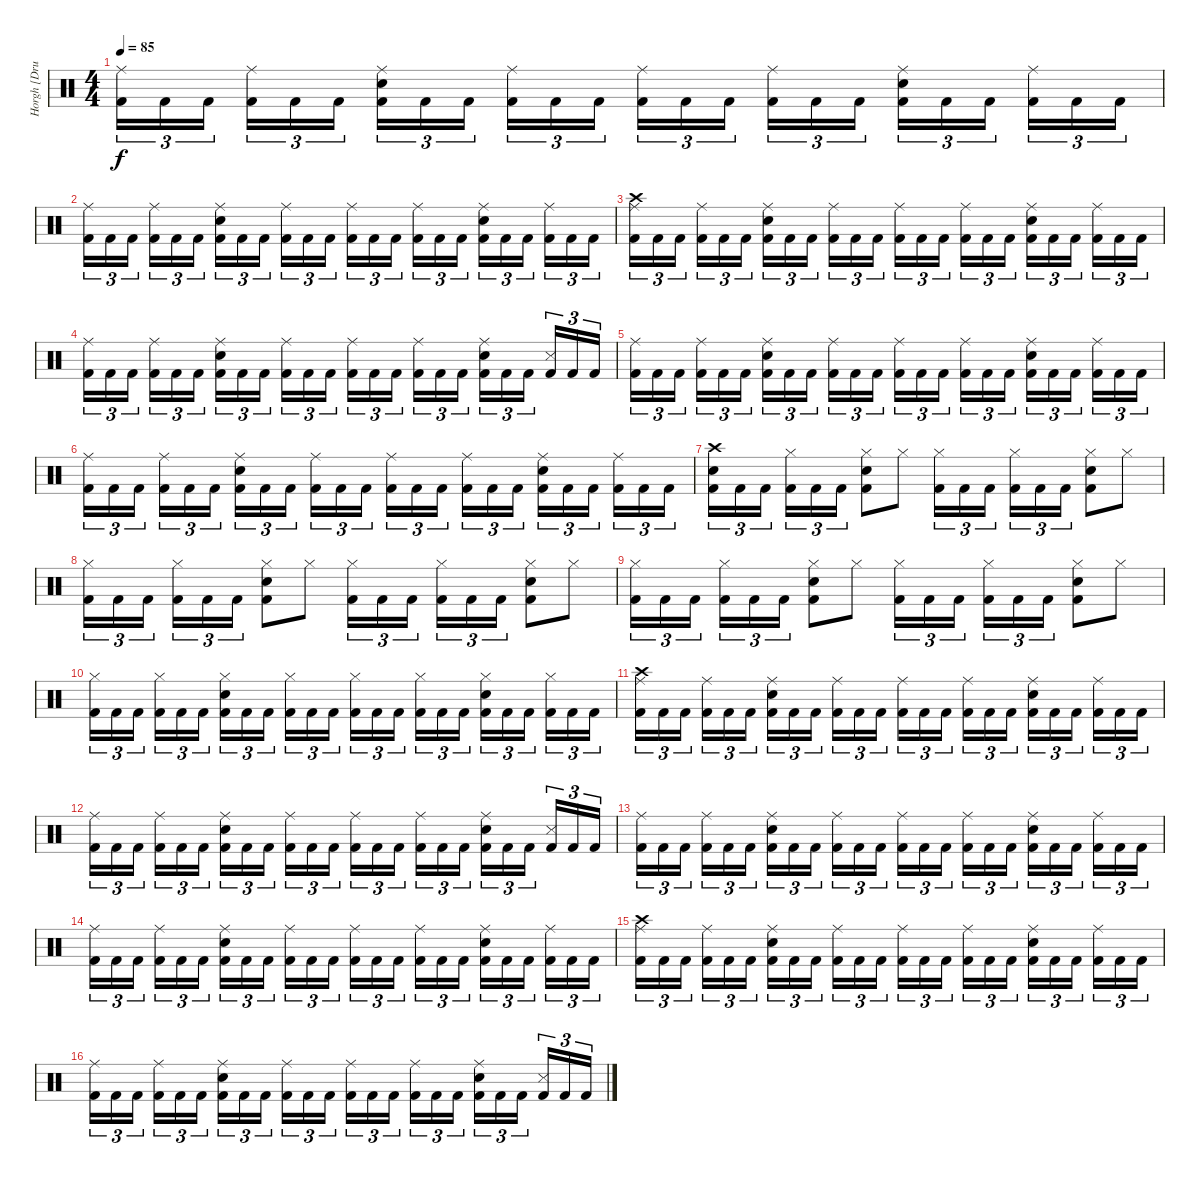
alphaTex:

\track ("Horgh [Drums]" "Horgh [Dru") {instrument percussion}
\staff {score}
\articulation defaults
\ts (4 4)
\tempo 85
\clef neutral
\ks c
("Ride (middle)" "Kick (hit) 2").16{tu (3 2) dy f} "Kick (hit) 2".16{tu (3 2)} "Kick (hit) 2".16{tu (3 2)} ("Ride (middle)" "Kick (hit) 2").16{tu (3 2)} "Kick (hit) 2".16{tu (3 2)} "Kick (hit) 2".16{tu (3 2)} ("Ride (middle)" "Snare (hit) 2" "Kick (hit) 2").16{tu (3 2)} "Kick (hit) 2".16{tu (3 2)} "Kick (hit) 2".16{tu (3 2)} ("Ride (middle)" "Kick (hit) 2").16{tu (3 2)} "Kick (hit) 2".16{tu (3 2)} "Kick (hit) 2".16{tu (3 2)} ("Ride (middle)" "Kick (hit) 2").16{tu (3 2)} "Kick (hit) 2".16{tu (3 2)} "Kick (hit) 2".16{tu (3 2)} ("Ride (middle)" "Kick (hit) 2").16{tu (3 2)} "Kick (hit) 2".16{tu (3 2)} "Kick (hit) 2".16{tu (3 2)} ("Ride (middle)" "Snare (hit) 2" "Kick (hit) 2").16{tu (3 2)} "Kick (hit) 2".16{tu (3 2)} "Kick (hit) 2".16{tu (3 2)} ("Ride (middle)" "Kick (hit) 2").16{tu (3 2)} "Kick (hit) 2".16{tu (3 2)} "Kick (hit) 2".16{tu (3 2)} |
("Ride (middle)" "Kick (hit) 2").16{tu (3 2)} "Kick (hit) 2".16{tu (3 2)} "Kick (hit) 2".16{tu (3 2)} ("Ride (middle)" "Kick (hit) 2").16{tu (3 2)} "Kick (hit) 2".16{tu (3 2)} "Kick (hit) 2".16{tu (3 2)} ("Ride (middle)" "Snare (hit) 2" "Kick (hit) 2").16{tu (3 2)} "Kick (hit) 2".16{tu (3 2)} "Kick (hit) 2".16{tu (3 2)} ("Ride (middle)" "Kick (hit) 2").16{tu (3 2)} "Kick (hit) 2".16{tu (3 2)} "Kick (hit) 2".16{tu (3 2)} ("Ride (middle)" "Kick (hit) 2").16{tu (3 2)} "Kick (hit) 2".16{tu (3 2)} "Kick (hit) 2".16{tu (3 2)} ("Ride (middle)" "Kick (hit) 2").16{tu (3 2)} "Kick (hit) 2".16{tu (3 2)} "Kick (hit) 2".16{tu (3 2)} ("Ride (middle)" "Snare (hit) 2" "Kick (hit) 2").16{tu (3 2)} "Kick (hit) 2".16{tu (3 2)} "Kick (hit) 2".16{tu (3 2)} ("Ride (middle)" "Kick (hit) 2").16{tu (3 2)} "Kick (hit) 2".16{tu (3 2)} "Kick (hit) 2".16{tu (3 2)} |
("Crash high (hit)" "Ride (middle)" "Kick (hit) 2").16{tu (3 2)} "Kick (hit) 2".16{tu (3 2)} "Kick (hit) 2".16{tu (3 2)} ("Ride (middle)" "Kick (hit) 2").16{tu (3 2)} "Kick (hit) 2".16{tu (3 2)} "Kick (hit) 2".16{tu (3 2)} ("Ride (middle)" "Snare (hit) 2" "Kick (hit) 2").16{tu (3 2)} "Kick (hit) 2".16{tu (3 2)} "Kick (hit) 2".16{tu (3 2)} ("Ride (middle)" "Kick (hit) 2").16{tu (3 2)} "Kick (hit) 2".16{tu (3 2)} "Kick (hit) 2".16{tu (3 2)} ("Ride (middle)" "Kick (hit) 2").16{tu (3 2)} "Kick (hit) 2".16{tu (3 2)} "Kick (hit) 2".16{tu (3 2)} ("Ride (middle)" "Kick (hit) 2").16{tu (3 2)} "Kick (hit) 2".16{tu (3 2)} "Kick (hit) 2".16{tu (3 2)} ("Ride (middle)" "Snare (hit) 2" "Kick (hit) 2").16{tu (3 2)} "Kick (hit) 2".16{tu (3 2)} "Kick (hit) 2".16{tu (3 2)} ("Ride (middle)" "Kick (hit) 2").16{tu (3 2)} "Kick (hit) 2".16{tu (3 2)} "Kick (hit) 2".16{tu (3 2)} |
("Ride (middle)" "Kick (hit) 2").16{tu (3 2)} "Kick (hit) 2".16{tu (3 2)} "Kick (hit) 2".16{tu (3 2)} ("Ride (middle)" "Kick (hit) 2").16{tu (3 2)} "Kick (hit) 2".16{tu (3 2)} "Kick (hit) 2".16{tu (3 2)} ("Ride (middle)" "Snare (hit) 2" "Kick (hit) 2").16{tu (3 2)} "Kick (hit) 2".16{tu (3 2)} "Kick (hit) 2".16{tu (3 2)} ("Ride (middle)" "Kick (hit) 2").16{tu (3 2)} "Kick (hit) 2".16{tu (3 2)} "Kick (hit) 2".16{tu (3 2)} ("Ride (middle)" "Kick (hit) 2").16{tu (3 2)} "Kick (hit) 2".16{tu (3 2)} "Kick (hit) 2".16{tu (3 2)} ("Ride (middle)" "Kick (hit) 2").16{tu (3 2)} "Kick (hit) 2".16{tu (3 2)} "Kick (hit) 2".16{tu (3 2)} ("Ride (middle)" "Snare (hit) 2" "Kick (hit) 2").16{tu (3 2)} "Kick (hit) 2".16{tu (3 2)} "Kick (hit) 2".16{tu (3 2)} ("Snare (side stick) 3" "Kick (hit) 2").16{tu (3 2)} "Kick (hit) 2".16{tu (3 2)} "Kick (hit) 2".16{tu (3 2)} |
("Ride (middle)" "Kick (hit) 2").16{tu (3 2)} "Kick (hit) 2".16{tu (3 2)} "Kick (hit) 2".16{tu (3 2)} ("Ride (middle)" "Kick (hit) 2").16{tu (3 2)} "Kick (hit) 2".16{tu (3 2)} "Kick (hit) 2".16{tu (3 2)} ("Ride (middle)" "Snare (hit) 2" "Kick (hit) 2").16{tu (3 2)} "Kick (hit) 2".16{tu (3 2)} "Kick (hit) 2".16{tu (3 2)} ("Ride (middle)" "Kick (hit) 2").16{tu (3 2)} "Kick (hit) 2".16{tu (3 2)} "Kick (hit) 2".16{tu (3 2)} ("Ride (middle)" "Kick (hit) 2").16{tu (3 2)} "Kick (hit) 2".16{tu (3 2)} "Kick (hit) 2".16{tu (3 2)} ("Ride (middle)" "Kick (hit) 2").16{tu (3 2)} "Kick (hit) 2".16{tu (3 2)} "Kick (hit) 2".16{tu (3 2)} ("Ride (middle)" "Snare (hit) 2" "Kick (hit) 2").16{tu (3 2)} "Kick (hit) 2".16{tu (3 2)} "Kick (hit) 2".16{tu (3 2)} ("Ride (middle)" "Kick (hit) 2").16{tu (3 2)} "Kick (hit) 2".16{tu (3 2)} "Kick (hit) 2".16{tu (3 2)} |
("Ride (middle)" "Kick (hit) 2").16{tu (3 2)} "Kick (hit) 2".16{tu (3 2)} "Kick (hit) 2".16{tu (3 2)} ("Ride (middle)" "Kick (hit) 2").16{tu (3 2)} "Kick (hit) 2".16{tu (3 2)} "Kick (hit) 2".16{tu (3 2)} ("Ride (middle)" "Snare (hit) 2" "Kick (hit) 2").16{tu (3 2)} "Kick (hit) 2".16{tu (3 2)} "Kick (hit) 2".16{tu (3 2)} ("Ride (middle)" "Kick (hit) 2").16{tu (3 2)} "Kick (hit) 2".16{tu (3 2)} "Kick (hit) 2".16{tu (3 2)} ("Ride (middle)" "Kick (hit) 2").16{tu (3 2)} "Kick (hit) 2".16{tu (3 2)} "Kick (hit) 2".16{tu (3 2)} ("Ride (middle)" "Kick (hit) 2").16{tu (3 2)} "Kick (hit) 2".16{tu (3 2)} "Kick (hit) 2".16{tu (3 2)} ("Ride (middle)" "Snare (hit) 2" "Kick (hit) 2").16{tu (3 2)} "Kick (hit) 2".16{tu (3 2)} "Kick (hit) 2".16{tu (3 2)} ("Ride (middle)" "Kick (hit) 2").16{tu (3 2)} "Kick (hit) 2".16{tu (3 2)} "Kick (hit) 2".16{tu (3 2)} |
\section ("" "")
("Crash high (hit)" "Snare (hit) 2" "Kick (hit) 2").16{tu (3 2)} "Kick (hit) 2".16{tu (3 2)} "Kick (hit) 2".16{tu (3 2)} ("Hi-Hat (closed)" "Kick (hit) 2").16{tu (3 2)} "Kick (hit) 2".16{tu (3 2)} "Kick (hit) 2".16{tu (3 2)} ("Hi-Hat (closed)" "Snare (hit) 2" "Kick (hit) 2").8 "Hi-Hat (closed)".8 ("Hi-Hat (closed)" "Kick (hit) 2").16{tu (3 2)} "Kick (hit) 2".16{tu (3 2)} "Kick (hit) 2".16{tu (3 2)} ("Hi-Hat (closed)" "Kick (hit) 2").16{tu (3 2)} "Kick (hit) 2".16{tu (3 2)} "Kick (hit) 2".16{tu (3 2)} ("Hi-Hat (closed)" "Snare (hit) 2" "Kick (hit) 2").8 "Hi-Hat (closed)".8 |
("Hi-Hat (closed)" "Kick (hit) 2").16{tu (3 2)} "Kick (hit) 2".16{tu (3 2)} "Kick (hit) 2".16{tu (3 2)} ("Hi-Hat (closed)" "Kick (hit) 2").16{tu (3 2)} "Kick (hit) 2".16{tu (3 2)} "Kick (hit) 2".16{tu (3 2)} ("Hi-Hat (closed)" "Snare (hit) 2" "Kick (hit) 2").8 "Hi-Hat (closed)".8 ("Hi-Hat (closed)" "Kick (hit) 2").16{tu (3 2)} "Kick (hit) 2".16{tu (3 2)} "Kick (hit) 2".16{tu (3 2)} ("Hi-Hat (closed)" "Kick (hit) 2").16{tu (3 2)} "Kick (hit) 2".16{tu (3 2)} "Kick (hit) 2".16{tu (3 2)} ("Hi-Hat (closed)" "Snare (hit) 2" "Kick (hit) 2").8 "Hi-Hat (closed)".8 |
("Hi-Hat (closed)" "Kick (hit) 2").16{tu (3 2)} "Kick (hit) 2".16{tu (3 2)} "Kick (hit) 2".16{tu (3 2)} ("Hi-Hat (closed)" "Kick (hit) 2").16{tu (3 2)} "Kick (hit) 2".16{tu (3 2)} "Kick (hit) 2".16{tu (3 2)} ("Hi-Hat (closed)" "Snare (hit) 2" "Kick (hit) 2").8 "Hi-Hat (closed)".8 ("Hi-Hat (closed)" "Kick (hit) 2").16{tu (3 2)} "Kick (hit) 2".16{tu (3 2)} "Kick (hit) 2".16{tu (3 2)} ("Hi-Hat (closed)" "Kick (hit) 2").16{tu (3 2)} "Kick (hit) 2".16{tu (3 2)} "Kick (hit) 2".16{tu (3 2)} ("Hi-Hat (closed)" "Snare (hit) 2" "Kick (hit) 2").8 "Hi-Hat (closed)".8 |
("Hi-Hat (closed)" "Kick (hit) 2").16{tu (3 2)} "Kick (hit) 2".16{tu (3 2)} "Kick (hit) 2".16{tu (3 2)} ("Hi-Hat (closed)" "Kick (hit) 2").16{tu (3 2)} "Kick (hit) 2".16{tu (3 2)} "Kick (hit) 2".16{tu (3 2)} ("Hi-Hat (closed)" "Snare (hit) 2" "Kick (hit) 2").16{tu (3 2)} "Kick (hit) 2".16{tu (3 2)} "Kick (hit) 2".16{tu (3 2)} ("Hi-Hat (closed)" "Kick (hit) 2").16{tu (3 2)} "Kick (hit) 2".16{tu (3 2)} "Kick (hit) 2".16{tu (3 2)} ("Hi-Hat (closed)" "Kick (hit) 2").16{tu (3 2)} "Kick (hit) 2".16{tu (3 2)} "Kick (hit) 2".16{tu (3 2)} ("Hi-Hat (closed)" "Kick (hit) 2").16{tu (3 2)} "Kick (hit) 2".16{tu (3 2)} "Kick (hit) 2".16{tu (3 2)} ("Hi-Hat (closed)" "Snare (hit) 2" "Kick (hit) 2").16{tu (3 2)} "Kick (hit) 2".16{tu (3 2)} "Kick (hit) 2".16{tu (3 2)} ("Hi-Hat (closed)" "Kick (hit) 2").16{tu (3 2)} "Kick (hit) 2".16{tu (3 2)} "Kick (hit) 2".16{tu (3 2)} |
("Crash high (hit)" "Ride (middle)" "Kick (hit) 2").16{tu (3 2)} "Kick (hit) 2".16{tu (3 2)} "Kick (hit) 2".16{tu (3 2)} ("Ride (middle)" "Kick (hit) 2").16{tu (3 2)} "Kick (hit) 2".16{tu (3 2)} "Kick (hit) 2".16{tu (3 2)} ("Ride (middle)" "Snare (hit) 2" "Kick (hit) 2").16{tu (3 2)} "Kick (hit) 2".16{tu (3 2)} "Kick (hit) 2".16{tu (3 2)} ("Ride (middle)" "Kick (hit) 2").16{tu (3 2)} "Kick (hit) 2".16{tu (3 2)} "Kick (hit) 2".16{tu (3 2)} ("Ride (middle)" "Kick (hit) 2").16{tu (3 2)} "Kick (hit) 2".16{tu (3 2)} "Kick (hit) 2".16{tu (3 2)} ("Ride (middle)" "Kick (hit) 2").16{tu (3 2)} "Kick (hit) 2".16{tu (3 2)} "Kick (hit) 2".16{tu (3 2)} ("Ride (middle)" "Snare (hit) 2" "Kick (hit) 2").16{tu (3 2)} "Kick (hit) 2".16{tu (3 2)} "Kick (hit) 2".16{tu (3 2)} ("Ride (middle)" "Kick (hit) 2").16{tu (3 2)} "Kick (hit) 2".16{tu (3 2)} "Kick (hit) 2".16{tu (3 2)} |
("Ride (middle)" "Kick (hit) 2").16{tu (3 2)} "Kick (hit) 2".16{tu (3 2)} "Kick (hit) 2".16{tu (3 2)} ("Ride (middle)" "Kick (hit) 2").16{tu (3 2)} "Kick (hit) 2".16{tu (3 2)} "Kick (hit) 2".16{tu (3 2)} ("Ride (middle)" "Snare (hit) 2" "Kick (hit) 2").16{tu (3 2)} "Kick (hit) 2".16{tu (3 2)} "Kick (hit) 2".16{tu (3 2)} ("Ride (middle)" "Kick (hit) 2").16{tu (3 2)} "Kick (hit) 2".16{tu (3 2)} "Kick (hit) 2".16{tu (3 2)} ("Ride (middle)" "Kick (hit) 2").16{tu (3 2)} "Kick (hit) 2".16{tu (3 2)} "Kick (hit) 2".16{tu (3 2)} ("Ride (middle)" "Kick (hit) 2").16{tu (3 2)} "Kick (hit) 2".16{tu (3 2)} "Kick (hit) 2".16{tu (3 2)} ("Ride (middle)" "Snare (hit) 2" "Kick (hit) 2").16{tu (3 2)} "Kick (hit) 2".16{tu (3 2)} "Kick (hit) 2".16{tu (3 2)} ("Snare (side stick) 3" "Kick (hit) 2").16{tu (3 2)} "Kick (hit) 2".16{tu (3 2)} "Kick (hit) 2".16{tu (3 2)} |
("Ride (middle)" "Kick (hit) 2").16{tu (3 2)} "Kick (hit) 2".16{tu (3 2)} "Kick (hit) 2".16{tu (3 2)} ("Ride (middle)" "Kick (hit) 2").16{tu (3 2)} "Kick (hit) 2".16{tu (3 2)} "Kick (hit) 2".16{tu (3 2)} ("Ride (middle)" "Snare (hit) 2" "Kick (hit) 2").16{tu (3 2)} "Kick (hit) 2".16{tu (3 2)} "Kick (hit) 2".16{tu (3 2)} ("Ride (middle)" "Kick (hit) 2").16{tu (3 2)} "Kick (hit) 2".16{tu (3 2)} "Kick (hit) 2".16{tu (3 2)} ("Ride (middle)" "Kick (hit) 2").16{tu (3 2)} "Kick (hit) 2".16{tu (3 2)} "Kick (hit) 2".16{tu (3 2)} ("Ride (middle)" "Kick (hit) 2").16{tu (3 2)} "Kick (hit) 2".16{tu (3 2)} "Kick (hit) 2".16{tu (3 2)} ("Ride (middle)" "Snare (hit) 2" "Kick (hit) 2").16{tu (3 2)} "Kick (hit) 2".16{tu (3 2)} "Kick (hit) 2".16{tu (3 2)} ("Ride (middle)" "Kick (hit) 2").16{tu (3 2)} "Kick (hit) 2".16{tu (3 2)} "Kick (hit) 2".16{tu (3 2)} |
("Ride (middle)" "Kick (hit) 2").16{tu (3 2)} "Kick (hit) 2".16{tu (3 2)} "Kick (hit) 2".16{tu (3 2)} ("Ride (middle)" "Kick (hit) 2").16{tu (3 2)} "Kick (hit) 2".16{tu (3 2)} "Kick (hit) 2".16{tu (3 2)} ("Ride (middle)" "Snare (hit) 2" "Kick (hit) 2").16{tu (3 2)} "Kick (hit) 2".16{tu (3 2)} "Kick (hit) 2".16{tu (3 2)} ("Ride (middle)" "Kick (hit) 2").16{tu (3 2)} "Kick (hit) 2".16{tu (3 2)} "Kick (hit) 2".16{tu (3 2)} ("Ride (middle)" "Kick (hit) 2").16{tu (3 2)} "Kick (hit) 2".16{tu (3 2)} "Kick (hit) 2".16{tu (3 2)} ("Ride (middle)" "Kick (hit) 2").16{tu (3 2)} "Kick (hit) 2".16{tu (3 2)} "Kick (hit) 2".16{tu (3 2)} ("Ride (middle)" "Snare (hit) 2" "Kick (hit) 2").16{tu (3 2)} "Kick (hit) 2".16{tu (3 2)} "Kick (hit) 2".16{tu (3 2)} ("Ride (middle)" "Kick (hit) 2").16{tu (3 2)} "Kick (hit) 2".16{tu (3 2)} "Kick (hit) 2".16{tu (3 2)} |
("Crash high (hit)" "Ride (middle)" "Kick (hit) 2").16{tu (3 2)} "Kick (hit) 2".16{tu (3 2)} "Kick (hit) 2".16{tu (3 2)} ("Ride (middle)" "Kick (hit) 2").16{tu (3 2)} "Kick (hit) 2".16{tu (3 2)} "Kick (hit) 2".16{tu (3 2)} ("Ride (middle)" "Snare (hit) 2" "Kick (hit) 2").16{tu (3 2)} "Kick (hit) 2".16{tu (3 2)} "Kick (hit) 2".16{tu (3 2)} ("Ride (middle)" "Kick (hit) 2").16{tu (3 2)} "Kick (hit) 2".16{tu (3 2)} "Kick (hit) 2".16{tu (3 2)} ("Ride (middle)" "Kick (hit) 2").16{tu (3 2)} "Kick (hit) 2".16{tu (3 2)} "Kick (hit) 2".16{tu (3 2)} ("Ride (middle)" "Kick (hit) 2").16{tu (3 2)} "Kick (hit) 2".16{tu (3 2)} "Kick (hit) 2".16{tu (3 2)} ("Ride (middle)" "Snare (hit) 2" "Kick (hit) 2").16{tu (3 2)} "Kick (hit) 2".16{tu (3 2)} "Kick (hit) 2".16{tu (3 2)} ("Ride (middle)" "Kick (hit) 2").16{tu (3 2)} "Kick (hit) 2".16{tu (3 2)} "Kick (hit) 2".16{tu (3 2)} |
("Ride (middle)" "Kick (hit) 2").16{tu (3 2)} "Kick (hit) 2".16{tu (3 2)} "Kick (hit) 2".16{tu (3 2)} ("Ride (middle)" "Kick (hit) 2").16{tu (3 2)} "Kick (hit) 2".16{tu (3 2)} "Kick (hit) 2".16{tu (3 2)} ("Ride (middle)" "Snare (hit) 2" "Kick (hit) 2").16{tu (3 2)} "Kick (hit) 2".16{tu (3 2)} "Kick (hit) 2".16{tu (3 2)} ("Ride (middle)" "Kick (hit) 2").16{tu (3 2)} "Kick (hit) 2".16{tu (3 2)} "Kick (hit) 2".16{tu (3 2)} ("Ride (middle)" "Kick (hit) 2").16{tu (3 2)} "Kick (hit) 2".16{tu (3 2)} "Kick (hit) 2".16{tu (3 2)} ("Ride (middle)" "Kick (hit) 2").16{tu (3 2)} "Kick (hit) 2".16{tu (3 2)} "Kick (hit) 2".16{tu (3 2)} ("Ride (middle)" "Snare (hit) 2" "Kick (hit) 2").16{tu (3 2)} "Kick (hit) 2".16{tu (3 2)} "Kick (hit) 2".16{tu (3 2)} ("Snare (side stick) 3" "Kick (hit) 2").16{tu (3 2)} "Kick (hit) 2".16{tu (3 2)} "Kick (hit) 2".16{tu (3 2)}
